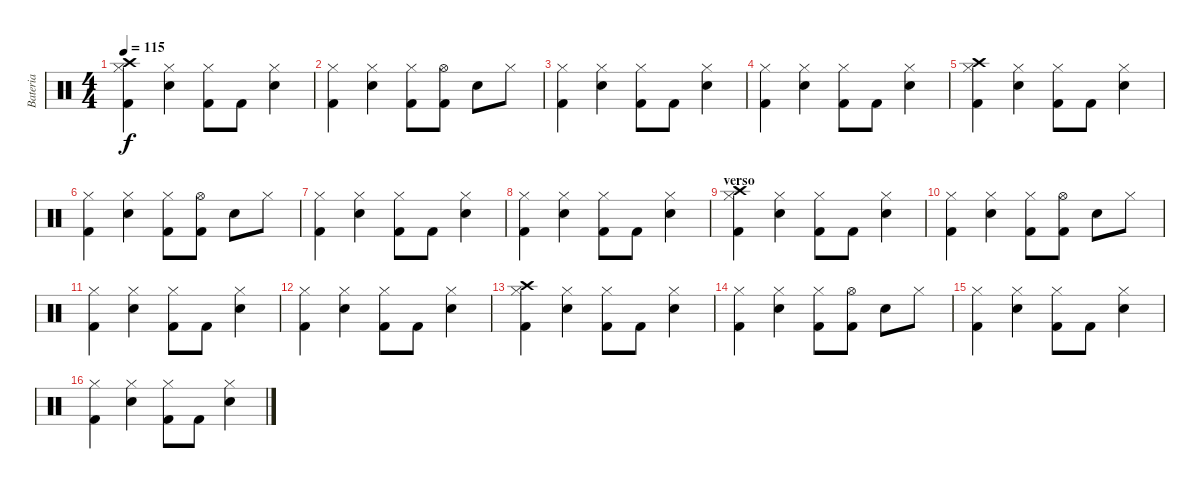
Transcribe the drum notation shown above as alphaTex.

\track ("Bateria" "Bateria") {instrument percussion}
\staff {score}
\articulation defaults
\ts (4 4)
\tempo 115
\clef neutral
\ks c
("Crash high (hit)" "Hi-Hat (closed)" "Kick (hit) 2").4{dy f} ("Hi-Hat (closed)" "Electric Snare (hit)").4 ("Hi-Hat (closed)" "Kick (hit) 2").8 "Kick (hit) 2".8 ("Hi-Hat (closed)" "Electric Snare (hit)").4 |
("Hi-Hat (closed)" "Kick (hit) 2").4 ("Hi-Hat (closed)" "Electric Snare (hit)").4 ("Hi-Hat (closed)" "Kick (hit) 2").8 ("Hi-Hat (open)" "Kick (hit) 2").8 "Electric Snare (hit)".8 "Hi-Hat (closed)".8 |
("Hi-Hat (closed)" "Kick (hit) 2").4 ("Hi-Hat (closed)" "Electric Snare (hit)").4 ("Hi-Hat (closed)" "Kick (hit) 2").8 "Kick (hit) 2".8 ("Hi-Hat (closed)" "Electric Snare (hit)").4 |
("Hi-Hat (closed)" "Kick (hit) 2").4 ("Hi-Hat (closed)" "Electric Snare (hit)").4 ("Hi-Hat (closed)" "Kick (hit) 2").8 "Kick (hit) 2".8 ("Hi-Hat (closed)" "Electric Snare (hit)").4 |
("Crash high (hit)" "Hi-Hat (closed)" "Kick (hit) 2").4 ("Hi-Hat (closed)" "Electric Snare (hit)").4 ("Hi-Hat (closed)" "Kick (hit) 2").8 "Kick (hit) 2".8 ("Hi-Hat (closed)" "Electric Snare (hit)").4 |
("Hi-Hat (closed)" "Kick (hit) 2").4 ("Hi-Hat (closed)" "Electric Snare (hit)").4 ("Hi-Hat (closed)" "Kick (hit) 2").8 ("Hi-Hat (open)" "Kick (hit) 2").8 "Electric Snare (hit)".8 "Hi-Hat (closed)".8 |
("Hi-Hat (closed)" "Kick (hit) 2").4 ("Hi-Hat (closed)" "Electric Snare (hit)").4 ("Hi-Hat (closed)" "Kick (hit) 2").8 "Kick (hit) 2".8 ("Hi-Hat (closed)" "Electric Snare (hit)").4 |
("Hi-Hat (closed)" "Kick (hit) 2").4 ("Hi-Hat (closed)" "Electric Snare (hit)").4 ("Hi-Hat (closed)" "Kick (hit) 2").8 "Kick (hit) 2".8 ("Hi-Hat (closed)" "Electric Snare (hit)").4 |
\section ("" "verso")
("Crash high (hit)" "Hi-Hat (closed)" "Kick (hit) 2").4 ("Hi-Hat (closed)" "Electric Snare (hit)").4 ("Hi-Hat (closed)" "Kick (hit) 2").8 "Kick (hit) 2".8 ("Hi-Hat (closed)" "Electric Snare (hit)").4 |
("Hi-Hat (closed)" "Kick (hit) 2").4 ("Hi-Hat (closed)" "Electric Snare (hit)").4 ("Hi-Hat (closed)" "Kick (hit) 2").8 ("Hi-Hat (open)" "Kick (hit) 2").8 "Electric Snare (hit)".8 "Hi-Hat (closed)".8 |
("Hi-Hat (closed)" "Kick (hit) 2").4 ("Hi-Hat (closed)" "Electric Snare (hit)").4 ("Hi-Hat (closed)" "Kick (hit) 2").8 "Kick (hit) 2".8 ("Hi-Hat (closed)" "Electric Snare (hit)").4 |
("Hi-Hat (closed)" "Kick (hit) 2").4 ("Hi-Hat (closed)" "Electric Snare (hit)").4 ("Hi-Hat (closed)" "Kick (hit) 2").8 "Kick (hit) 2".8 ("Hi-Hat (closed)" "Electric Snare (hit)").4 |
("Crash high (hit)" "Hi-Hat (closed)" "Kick (hit) 2").4 ("Hi-Hat (closed)" "Electric Snare (hit)").4 ("Hi-Hat (closed)" "Kick (hit) 2").8 "Kick (hit) 2".8 ("Hi-Hat (closed)" "Electric Snare (hit)").4 |
("Hi-Hat (closed)" "Kick (hit) 2").4 ("Hi-Hat (closed)" "Electric Snare (hit)").4 ("Hi-Hat (closed)" "Kick (hit) 2").8 ("Hi-Hat (open)" "Kick (hit) 2").8 "Electric Snare (hit)".8 "Hi-Hat (closed)".8 |
("Hi-Hat (closed)" "Kick (hit) 2").4 ("Hi-Hat (closed)" "Electric Snare (hit)").4 ("Hi-Hat (closed)" "Kick (hit) 2").8 "Kick (hit) 2".8 ("Hi-Hat (closed)" "Electric Snare (hit)").4 |
("Hi-Hat (closed)" "Kick (hit) 2").4 ("Hi-Hat (closed)" "Electric Snare (hit)").4 ("Hi-Hat (closed)" "Kick (hit) 2").8 "Kick (hit) 2".8 ("Hi-Hat (closed)" "Electric Snare (hit)").4
